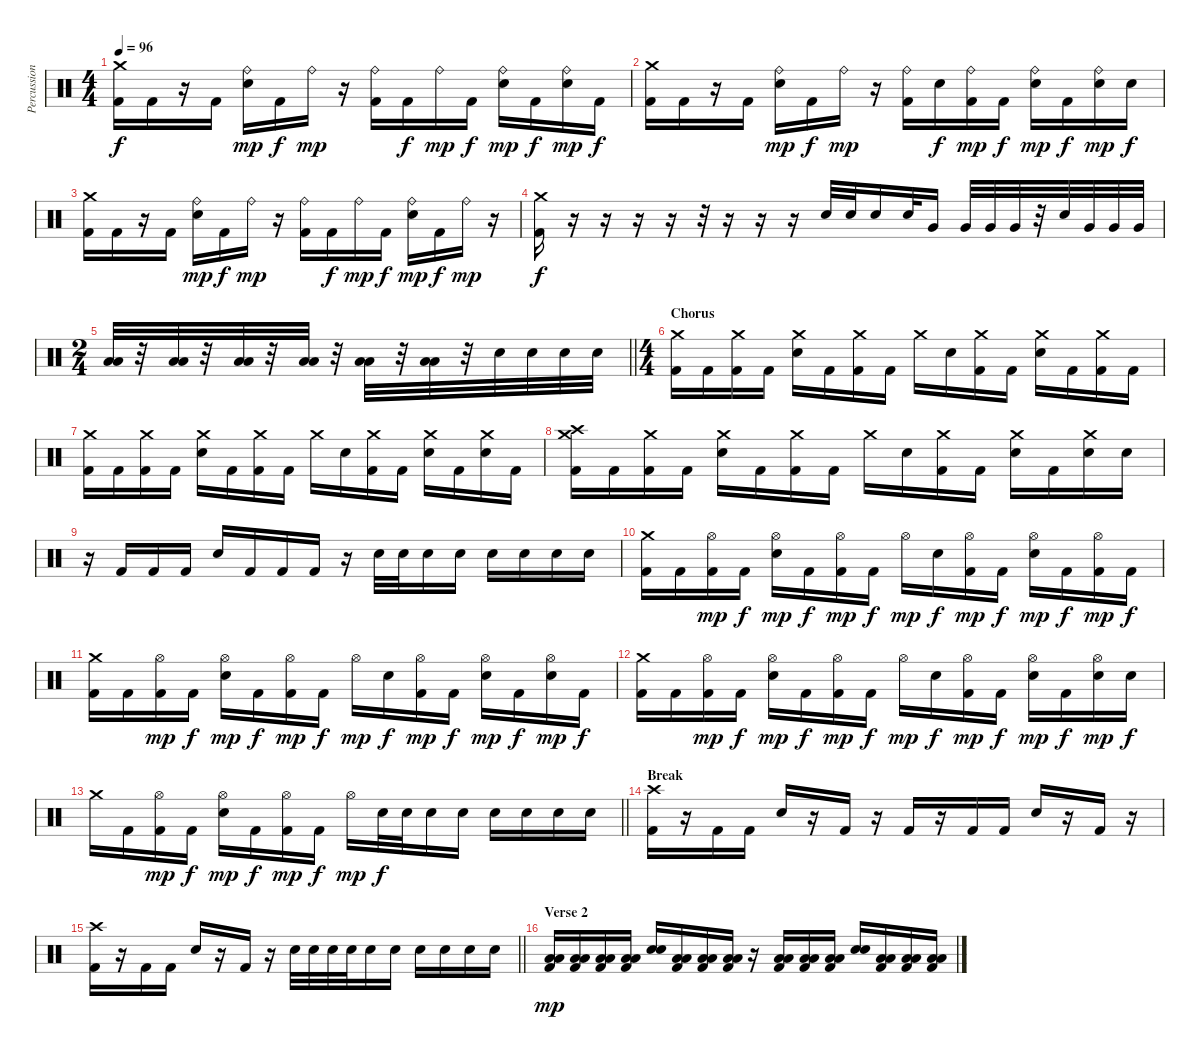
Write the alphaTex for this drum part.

\track ("Percussion" "Percussion") {instrument percussion}
\staff {score}
\articulation defaults
\ts (4 4)
\tempo 96
\clef neutral
\ks c
("Crash medium (hit)" "Kick (hit) 2").16{dy f} "Kick (hit) 2".16 r.16 "Kick (hit) 2".16 ("Ride (bell)" "Electric Snare (hit)").16{dy mp} "Kick (hit) 2".16{dy f} "Ride (bell)".16{dy mp} r.16 ("Ride (bell)" "Kick (hit) 2").16 "Kick (hit) 2".16{dy f} "Ride (bell)".16{dy mp} "Kick (hit) 2".16{dy f} ("Ride (bell)" "Electric Snare (hit)").16{dy mp} "Kick (hit) 2".16{dy f} ("Ride (bell)" "Electric Snare (hit)").16{dy mp} "Kick (hit) 2".16{dy f} |
("Crash medium (hit)" "Kick (hit) 2").16 "Kick (hit) 2".16 r.16 "Kick (hit) 2".16 ("Ride (bell)" "Electric Snare (hit)").16{dy mp} "Kick (hit) 2".16{dy f} "Ride (bell)".16{dy mp} r.16 ("Ride (bell)" "Kick (hit) 2").16 "Electric Snare (hit)".16{dy f} ("Ride (bell)" "Kick (hit) 2").16{dy mp} "Kick (hit) 2".16{dy f} ("Ride (bell)" "Electric Snare (hit)").16{dy mp} "Kick (hit) 2".16{dy f} ("Ride (bell)" "Electric Snare (hit)").16{dy mp} "Electric Snare (hit)".16{dy f} |
("Crash medium (hit)" "Kick (hit) 2").16 "Kick (hit) 2".16 r.16 "Kick (hit) 2".16 ("Ride (bell)" "Electric Snare (hit)").16{dy mp} "Kick (hit) 2".16{dy f} "Ride (bell)".16{dy mp} r.16 ("Ride (bell)" "Kick (hit) 2").16 "Kick (hit) 2".16{dy f} "Ride (bell)".16{dy mp} "Kick (hit) 2".16{dy f} ("Ride (bell)" "Electric Snare (hit)").16{dy mp} "Kick (hit) 2".16{dy f} "Ride (bell)".16{dy mp} r.16 |
("Crash medium (hit)" "Kick (hit) 2").16{dy f} r.16 r.16 r.16 r.16 r.32 r.16 r.16 r.16 "Electric Snare (hit)".32 "Electric Snare (hit)".32 "Electric Snare (hit)".16 "Electric Snare (hit)".32 "Very Low Tom (hit)".16 "Very Low Tom (hit)".32 "Very Low Tom (hit)".32 "Very Low Tom (hit)".32 r.32 "Electric Snare (hit)".32 "Very Low Tom (hit)".32 "Very Low Tom (hit)".32 "Very Low Tom (hit)".32 |
\ts (2 4)
\barLineRight lightlight
("Low Tom (hit)" "Low Floor Tom (hit)").32 r.32 ("Low Tom (hit)" "Low Floor Tom (hit)").32 r.32 ("Low Tom (hit)" "Low Floor Tom (hit)").32 r.32 ("Low Tom (hit)" "Low Floor Tom (hit)").32 r.32 ("Low Tom (hit)" "Low Floor Tom (hit)").32 r.32 ("Low Tom (hit)" "Low Floor Tom (hit)").32 r.32 "Electric Snare (hit)".32 "Electric Snare (hit)".32 "Electric Snare (hit)".32 "Electric Snare (hit)".32 |
\ts (4 4)
\section ("" "Chorus")
("Crash medium (hit)" "Kick (hit) 2").16 "Kick (hit) 2".16 ("Crash medium (hit)" "Kick (hit) 2").16 "Kick (hit) 2".16 ("Crash medium (hit)" "Electric Snare (hit)").16 "Kick (hit) 2".16 ("Crash medium (hit)" "Kick (hit) 2").16 "Kick (hit) 2".16 "Crash medium (hit)".16 "Electric Snare (hit)".16 ("Crash medium (hit)" "Kick (hit) 2").16 "Kick (hit) 2".16 ("Crash medium (hit)" "Electric Snare (hit)").16 "Kick (hit) 2".16 ("Crash medium (hit)" "Kick (hit) 2").16 "Kick (hit) 2".16 |
("Crash medium (hit)" "Kick (hit) 2").16 "Kick (hit) 2".16 ("Crash medium (hit)" "Kick (hit) 2").16 "Kick (hit) 2".16 ("Crash medium (hit)" "Electric Snare (hit)").16 "Kick (hit) 2".16 ("Crash medium (hit)" "Kick (hit) 2").16 "Kick (hit) 2".16 "Crash medium (hit)".16 "Electric Snare (hit)".16 ("Crash medium (hit)" "Kick (hit) 2").16 "Kick (hit) 2".16 ("Crash medium (hit)" "Electric Snare (hit)").16 "Kick (hit) 2".16 ("Crash medium (hit)" "Electric Snare (hit)").16 "Kick (hit) 2".16 |
("Crash high (hit)" "Crash medium (hit)" "Kick (hit) 2").16 "Kick (hit) 2".16 ("Crash medium (hit)" "Kick (hit) 2").16 "Kick (hit) 2".16 ("Crash medium (hit)" "Electric Snare (hit)").16 "Kick (hit) 2".16 ("Crash medium (hit)" "Kick (hit) 2").16 "Kick (hit) 2".16 "Crash medium (hit)".16 "Electric Snare (hit)".16 ("Crash medium (hit)" "Kick (hit) 2").16 "Kick (hit) 2".16 ("Crash medium (hit)" "Electric Snare (hit)").16 "Kick (hit) 2".16 ("Crash medium (hit)" "Electric Snare (hit)").16 "Electric Snare (hit)".16 |
r.16 "Kick (hit) 2".16 "Kick (hit) 2".16 "Kick (hit) 2".16 "Electric Snare (hit)".16 "Kick (hit) 2".16 "Kick (hit) 2".16 "Kick (hit) 2".16 r.16 "Electric Snare (hit)".32 "Electric Snare (hit)".32 "Electric Snare (hit)".16 "Electric Snare (hit)".16 "Electric Snare (hit)".16 "Electric Snare (hit)".16 "Electric Snare (hit)".16 "Electric Snare (hit)".16 |
("Crash medium (hit)" "Kick (hit) 2").16 "Kick (hit) 2".16 ("Hi-Hat (open)" "Kick (hit) 2").16{dy mp} "Kick (hit) 2".16{dy f} ("Hi-Hat (open)" "Electric Snare (hit)").16{dy mp} "Kick (hit) 2".16{dy f} ("Hi-Hat (open)" "Kick (hit) 2").16{dy mp} "Kick (hit) 2".16{dy f} "Hi-Hat (open)".16{dy mp} "Electric Snare (hit)".16{dy f} ("Hi-Hat (open)" "Kick (hit) 2").16{dy mp} "Kick (hit) 2".16{dy f} ("Hi-Hat (open)" "Electric Snare (hit)").16{dy mp} "Kick (hit) 2".16{dy f} ("Hi-Hat (open)" "Kick (hit) 2").16{dy mp} "Kick (hit) 2".16{dy f} |
("Crash medium (hit)" "Kick (hit) 2").16 "Kick (hit) 2".16 ("Hi-Hat (open)" "Kick (hit) 2").16{dy mp} "Kick (hit) 2".16{dy f} ("Hi-Hat (open)" "Electric Snare (hit)").16{dy mp} "Kick (hit) 2".16{dy f} ("Hi-Hat (open)" "Kick (hit) 2").16{dy mp} "Kick (hit) 2".16{dy f} "Hi-Hat (open)".16{dy mp} "Electric Snare (hit)".16{dy f} ("Hi-Hat (open)" "Kick (hit) 2").16{dy mp} "Kick (hit) 2".16{dy f} ("Hi-Hat (open)" "Electric Snare (hit)").16{dy mp} "Kick (hit) 2".16{dy f} ("Hi-Hat (open)" "Electric Snare (hit)").16{dy mp} "Kick (hit) 2".16{dy f} |
("Crash medium (hit)" "Kick (hit) 2").16 "Kick (hit) 2".16 ("Hi-Hat (open)" "Kick (hit) 2").16{dy mp} "Kick (hit) 2".16{dy f} ("Hi-Hat (open)" "Electric Snare (hit)").16{dy mp} "Kick (hit) 2".16{dy f} ("Hi-Hat (open)" "Kick (hit) 2").16{dy mp} "Kick (hit) 2".16{dy f} "Hi-Hat (open)".16{dy mp} "Electric Snare (hit)".16{dy f} ("Hi-Hat (open)" "Kick (hit) 2").16{dy mp} "Kick (hit) 2".16{dy f} ("Hi-Hat (open)" "Electric Snare (hit)").16{dy mp} "Kick (hit) 2".16{dy f} ("Hi-Hat (open)" "Electric Snare (hit)").16{dy mp} "Electric Snare (hit)".16{dy f} |
\barLineRight lightlight "Crash medium (hit)".16 "Kick (hit) 2".16
("Hi-Hat (open)" "Kick (hit) 2").16{dy mp} "Kick (hit) 2".16{dy f} ("Hi-Hat (open)" "Electric Snare (hit)").16{dy mp} "Kick (hit) 2".16{dy f} ("Hi-Hat (open)" "Kick (hit) 2").16{dy mp} "Kick (hit) 2".16{dy f} "Hi-Hat (open)".16{dy mp} "Electric Snare (hit)".32{dy f} "Electric Snare (hit)".32 "Electric Snare (hit)".16 "Electric Snare (hit)".16 "Electric Snare (hit)".16 "Electric Snare (hit)".16 "Electric Snare (hit)".16 "Electric Snare (hit)".16 |
\section ("" "Break")
("Crash high (hit)" "Kick (hit) 2").16 r.16 "Kick (hit) 2".16 "Kick (hit) 2".16 "Electric Snare (hit)".16 r.16 "Kick (hit) 2".16 r.16 "Kick (hit) 2".16 r.16 "Kick (hit) 2".16 "Kick (hit) 2".16 "Electric Snare (hit)".16 r.16 "Kick (hit) 2".16 r.16 |
\barLineRight lightlight
("Crash high (hit)" "Kick (hit) 2").16 r.16 "Kick (hit) 2".16 "Kick (hit) 2".16 "Electric Snare (hit)".16 r.16 "Kick (hit) 2".16 r.16 "Electric Snare (hit)".32 "Electric Snare (hit)".32 "Electric Snare (hit)".32 "Electric Snare (hit)".32 "Electric Snare (hit)".16 "Electric Snare (hit)".16 "Electric Snare (hit)".16 "Electric Snare (hit)".16 "Electric Snare (hit)".16 "Electric Snare (hit)".16 |
\section ("" "Verse 2")
("Low Tom (hit)" "Low Floor Tom (hit)" "Kick (hit) 2").16{dy mp} ("Low Tom (hit)" "Low Floor Tom (hit)" "Kick (hit) 2").16 ("Low Tom (hit)" "Low Floor Tom (hit)" "Kick (hit) 2").16 ("Low Tom (hit)" "Low Floor Tom (hit)" "Kick (hit) 2").16 ("Electric Snare (hit)" "Snare (hit) 2").16 ("Low Tom (hit)" "Low Floor Tom (hit)" "Kick (hit) 2").16 ("Low Tom (hit)" "Low Floor Tom (hit)" "Kick (hit) 2").16 ("Low Tom (hit)" "Low Floor Tom (hit)" "Kick (hit) 2").16 r.16 ("Low Tom (hit)" "Low Floor Tom (hit)" "Kick (hit) 2").16 ("Low Tom (hit)" "Low Floor Tom (hit)" "Kick (hit) 2").16 ("Low Tom (hit)" "Low Floor Tom (hit)" "Kick (hit) 2").16 ("Electric Snare (hit)" "Snare (hit) 2").16 ("Low Tom (hit)" "Low Floor Tom (hit)" "Kick (hit) 2").16 ("Low Tom (hit)" "Low Floor Tom (hit)" "Kick (hit) 2").16 ("Low Tom (hit)" "Low Floor Tom (hit)" "Kick (hit) 2").16
